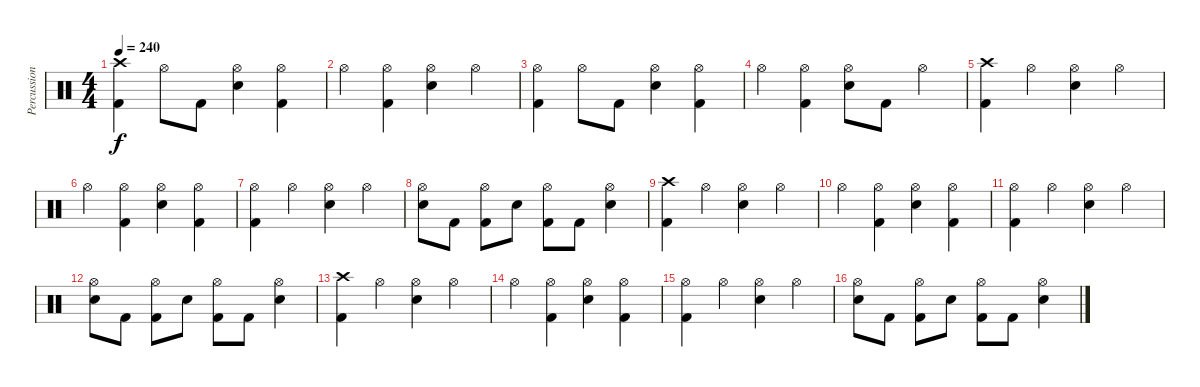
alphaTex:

\track ("Percussion" "Percussion") {instrument percussion}
\staff {score}
\articulation defaults
\ts (4 4)
\tempo 240
\clef neutral
\ks c
("Crash high (hit)" "Kick (hit) 2").4{dy f} "Hi-Hat (open)".8 "Kick (hit) 2".8 ("Hi-Hat (open)" "Snare (hit) 2").4 ("Hi-Hat (open)" "Kick (hit) 2").4 |
"Hi-Hat (open)".4 ("Hi-Hat (open)" "Kick (hit) 2").4 ("Hi-Hat (open)" "Snare (hit) 2").4 "Hi-Hat (open)".4 |
("Hi-Hat (open)" "Kick (hit) 2").4 "Hi-Hat (open)".8 "Kick (hit) 2".8 ("Hi-Hat (open)" "Snare (hit) 2").4 ("Hi-Hat (open)" "Kick (hit) 2").4 |
"Hi-Hat (open)".4 ("Hi-Hat (open)" "Kick (hit) 2").4 ("Hi-Hat (open)" "Snare (hit) 2").8 "Kick (hit) 2".8 "Hi-Hat (open)".4 |
("Crash high (hit)" "Kick (hit) 2").4 "Hi-Hat (open)".4 ("Hi-Hat (open)" "Snare (hit) 2").4 "Hi-Hat (open)".4 |
"Hi-Hat (open)".4 ("Hi-Hat (open)" "Kick (hit) 2").4 ("Hi-Hat (open)" "Snare (hit) 2").4 ("Hi-Hat (open)" "Kick (hit) 2").4 |
("Hi-Hat (open)" "Kick (hit) 2").4 "Hi-Hat (open)".4 ("Hi-Hat (open)" "Snare (hit) 2").4 "Hi-Hat (open)".4 |
("Hi-Hat (open)" "Snare (hit) 2").8 "Kick (hit) 2".8 ("Hi-Hat (open)" "Kick (hit) 2").8 "Snare (hit) 2".8 ("Hi-Hat (open)" "Kick (hit) 2").8 "Kick (hit) 2".8 ("Hi-Hat (open)" "Snare (hit) 2").4 |
("Crash high (hit)" "Kick (hit) 2").4 "Hi-Hat (open)".4 ("Hi-Hat (open)" "Snare (hit) 2").4 "Hi-Hat (open)".4 |
"Hi-Hat (open)".4 ("Hi-Hat (open)" "Kick (hit) 2").4 ("Hi-Hat (open)" "Snare (hit) 2").4 ("Hi-Hat (open)" "Kick (hit) 2").4 |
("Hi-Hat (open)" "Kick (hit) 2").4 "Hi-Hat (open)".4 ("Hi-Hat (open)" "Snare (hit) 2").4 "Hi-Hat (open)".4 |
("Hi-Hat (open)" "Snare (hit) 2").8 "Kick (hit) 2".8 ("Hi-Hat (open)" "Kick (hit) 2").8 "Snare (hit) 2".8 ("Hi-Hat (open)" "Kick (hit) 2").8 "Kick (hit) 2".8 ("Hi-Hat (open)" "Snare (hit) 2").4 |
("Crash high (hit)" "Kick (hit) 2").4 "Hi-Hat (open)".4 ("Hi-Hat (open)" "Snare (hit) 2").4 "Hi-Hat (open)".4 |
"Hi-Hat (open)".4 ("Hi-Hat (open)" "Kick (hit) 2").4 ("Hi-Hat (open)" "Snare (hit) 2").4 ("Hi-Hat (open)" "Kick (hit) 2").4 |
("Hi-Hat (open)" "Kick (hit) 2").4 "Hi-Hat (open)".4 ("Hi-Hat (open)" "Snare (hit) 2").4 "Hi-Hat (open)".4 |
("Hi-Hat (open)" "Snare (hit) 2").8 "Kick (hit) 2".8 ("Hi-Hat (open)" "Kick (hit) 2").8 "Snare (hit) 2".8 ("Hi-Hat (open)" "Kick (hit) 2").8 "Kick (hit) 2".8 ("Hi-Hat (open)" "Snare (hit) 2").4
